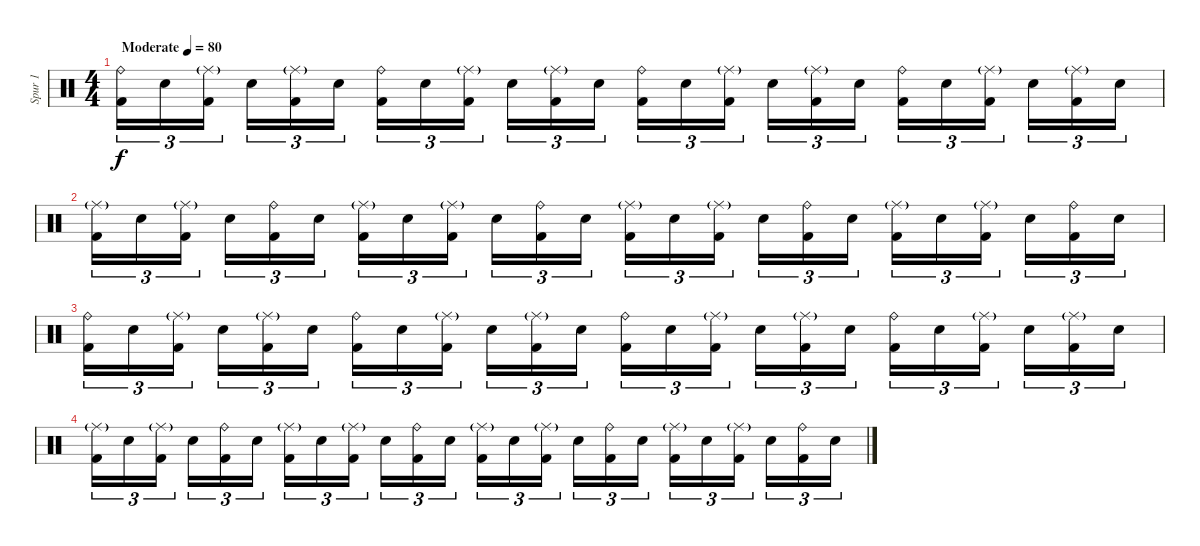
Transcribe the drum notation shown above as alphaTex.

\track ("Spur 1" "Spur 1") {instrument percussion}
\staff {score}
\articulation defaults
\ts (4 4)
\tempo (80 "Moderate")
\clef neutral
\ks c
("Ride (bell)" "Kick (hit) 2").16{tu (3 2) dy f} "Snare (hit) 2".16{tu (3 2)} ("Ride (middle)"{g} "Kick (hit) 2").16{tu (3 2)} "Snare (hit) 2".16{tu (3 2)} ("Ride (middle)"{g} "Kick (hit) 2").16{tu (3 2)} "Snare (hit) 2".16{tu (3 2)} ("Ride (bell)" "Kick (hit) 2").16{tu (3 2)} "Snare (hit) 2".16{tu (3 2)} ("Ride (middle)"{g} "Kick (hit) 2").16{tu (3 2)} "Snare (hit) 2".16{tu (3 2)} ("Ride (middle)"{g} "Kick (hit) 2").16{tu (3 2)} "Snare (hit) 2".16{tu (3 2)} ("Ride (bell)" "Kick (hit) 2").16{tu (3 2)} "Snare (hit) 2".16{tu (3 2)} ("Ride (middle)"{g} "Kick (hit) 2").16{tu (3 2)} "Snare (hit) 2".16{tu (3 2)} ("Ride (middle)"{g} "Kick (hit) 2").16{tu (3 2)} "Snare (hit) 2".16{tu (3 2)} ("Ride (bell)" "Kick (hit) 2").16{tu (3 2)} "Snare (hit) 2".16{tu (3 2)} ("Ride (middle)"{g} "Kick (hit) 2").16{tu (3 2)} "Snare (hit) 2".16{tu (3 2)} ("Ride (middle)"{g} "Kick (hit) 2").16{tu (3 2)} "Snare (hit) 2".16{tu (3 2)} |
("Ride (middle)"{g} "Kick (hit) 2").16{tu (3 2)} "Snare (hit) 2".16{tu (3 2)} ("Ride (middle)"{g} "Kick (hit) 2").16{tu (3 2)} "Snare (hit) 2".16{tu (3 2)} ("Ride (bell)" "Kick (hit) 2").16{tu (3 2)} "Snare (hit) 2".16{tu (3 2)} ("Ride (middle)"{g} "Kick (hit) 2").16{tu (3 2)} "Snare (hit) 2".16{tu (3 2)} ("Ride (middle)"{g} "Kick (hit) 2").16{tu (3 2)} "Snare (hit) 2".16{tu (3 2)} ("Ride (bell)" "Kick (hit) 2").16{tu (3 2)} "Snare (hit) 2".16{tu (3 2)} ("Ride (middle)"{g} "Kick (hit) 2").16{tu (3 2)} "Snare (hit) 2".16{tu (3 2)} ("Ride (middle)"{g} "Kick (hit) 2").16{tu (3 2)} "Snare (hit) 2".16{tu (3 2)} ("Ride (bell)" "Kick (hit) 2").16{tu (3 2)} "Snare (hit) 2".16{tu (3 2)} ("Ride (middle)"{g} "Kick (hit) 2").16{tu (3 2)} "Snare (hit) 2".16{tu (3 2)} ("Ride (middle)"{g} "Kick (hit) 2").16{tu (3 2)} "Snare (hit) 2".16{tu (3 2)} ("Ride (bell)" "Kick (hit) 2").16{tu (3 2)} "Snare (hit) 2".16{tu (3 2)} |
("Ride (bell)" "Kick (hit) 2").16{tu (3 2)} "Snare (hit) 2".16{tu (3 2)} ("Ride (middle)"{g} "Kick (hit) 2").16{tu (3 2)} "Snare (hit) 2".16{tu (3 2)} ("Ride (middle)"{g} "Kick (hit) 2").16{tu (3 2)} "Snare (hit) 2".16{tu (3 2)} ("Ride (bell)" "Kick (hit) 2").16{tu (3 2)} "Snare (hit) 2".16{tu (3 2)} ("Ride (middle)"{g} "Kick (hit) 2").16{tu (3 2)} "Snare (hit) 2".16{tu (3 2)} ("Ride (middle)"{g} "Kick (hit) 2").16{tu (3 2)} "Snare (hit) 2".16{tu (3 2)} ("Ride (bell)" "Kick (hit) 2").16{tu (3 2)} "Snare (hit) 2".16{tu (3 2)} ("Ride (middle)"{g} "Kick (hit) 2").16{tu (3 2)} "Snare (hit) 2".16{tu (3 2)} ("Ride (middle)"{g} "Kick (hit) 2").16{tu (3 2)} "Snare (hit) 2".16{tu (3 2)} ("Ride (bell)" "Kick (hit) 2").16{tu (3 2)} "Snare (hit) 2".16{tu (3 2)} ("Ride (middle)"{g} "Kick (hit) 2").16{tu (3 2)} "Snare (hit) 2".16{tu (3 2)} ("Ride (middle)"{g} "Kick (hit) 2").16{tu (3 2)} "Snare (hit) 2".16{tu (3 2)} |
("Ride (middle)"{g} "Kick (hit) 2").16{tu (3 2)} "Snare (hit) 2".16{tu (3 2)} ("Ride (middle)"{g} "Kick (hit) 2").16{tu (3 2)} "Snare (hit) 2".16{tu (3 2)} ("Ride (bell)" "Kick (hit) 2").16{tu (3 2)} "Snare (hit) 2".16{tu (3 2)} ("Ride (middle)"{g} "Kick (hit) 2").16{tu (3 2)} "Snare (hit) 2".16{tu (3 2)} ("Ride (middle)"{g} "Kick (hit) 2").16{tu (3 2)} "Snare (hit) 2".16{tu (3 2)} ("Ride (bell)" "Kick (hit) 2").16{tu (3 2)} "Snare (hit) 2".16{tu (3 2)} ("Ride (middle)"{g} "Kick (hit) 2").16{tu (3 2)} "Snare (hit) 2".16{tu (3 2)} ("Ride (middle)"{g} "Kick (hit) 2").16{tu (3 2)} "Snare (hit) 2".16{tu (3 2)} ("Ride (bell)" "Kick (hit) 2").16{tu (3 2)} "Snare (hit) 2".16{tu (3 2)} ("Ride (middle)"{g} "Kick (hit) 2").16{tu (3 2)} "Snare (hit) 2".16{tu (3 2)} ("Ride (middle)"{g} "Kick (hit) 2").16{tu (3 2)} "Snare (hit) 2".16{tu (3 2)} ("Ride (bell)" "Kick (hit) 2").16{tu (3 2)} "Snare (hit) 2".16{tu (3 2)}
